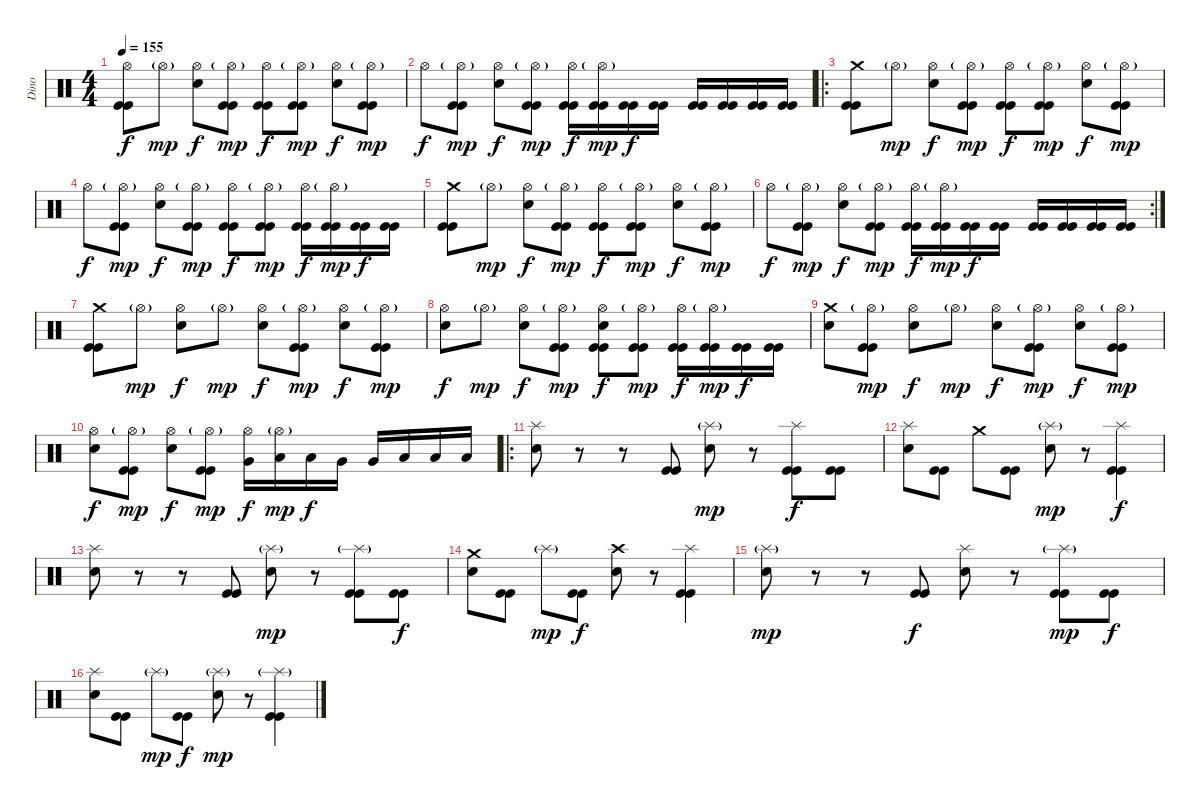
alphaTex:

\track ("Dino" "Dino") {instrument percussion}
\staff {score}
\articulation defaults
\ts (4 4)
\tempo 155
\clef neutral
\ks c
("Hi-Hat (open)" "Kick (hit)" "Kick (hit)").8{dy f} "Hi-Hat (open)"{g}.8{dy mp} ("Hi-Hat (open)" "Electric Snare (hit)").8{dy f} ("Hi-Hat (open)"{g} "Kick (hit)" "Kick (hit)").8{dy mp} ("Hi-Hat (open)" "Kick (hit)" "Kick (hit)").8{dy f} ("Hi-Hat (open)"{g} "Kick (hit)" "Kick (hit)").8{dy mp} ("Hi-Hat (open)" "Electric Snare (hit)").8{dy f} ("Hi-Hat (open)"{g} "Kick (hit)" "Kick (hit)").8{dy mp} |
"Hi-Hat (open)".8{dy f} ("Hi-Hat (open)"{g} "Kick (hit)" "Kick (hit)").8{dy mp} ("Hi-Hat (open)" "Electric Snare (hit)").8{dy f} ("Hi-Hat (open)"{g} "Kick (hit)" "Kick (hit)").8{dy mp} ("Hi-Hat (open)" "Kick (hit)" "Kick (hit)").16{dy f} ("Hi-Hat (open)"{g} "Kick (hit)" "Kick (hit)").16{dy mp} ("Kick (hit)" "Kick (hit)").16{dy f} ("Kick (hit)" "Kick (hit)").16 ("Kick (hit)" "Kick (hit)").16 ("Kick (hit)" "Kick (hit)").16 ("Kick (hit)" "Kick (hit)").16 ("Kick (hit)" "Kick (hit)").16 |
\ro
("Crash medium (hit)" "Kick (hit)" "Kick (hit)").8 "Hi-Hat (open)"{g}.8{dy mp} ("Hi-Hat (open)" "Electric Snare (hit)").8{dy f} ("Hi-Hat (open)"{g} "Kick (hit)" "Kick (hit)").8{dy mp} ("Hi-Hat (open)" "Kick (hit)" "Kick (hit)").8{dy f} ("Hi-Hat (open)"{g} "Kick (hit)" "Kick (hit)").8{dy mp} ("Hi-Hat (open)" "Electric Snare (hit)").8{dy f} ("Hi-Hat (open)"{g} "Kick (hit)" "Kick (hit)").8{dy mp} |
"Hi-Hat (open)".8{dy f} ("Hi-Hat (open)"{g} "Kick (hit)" "Kick (hit)").8{dy mp} ("Hi-Hat (open)" "Electric Snare (hit)").8{dy f} ("Hi-Hat (open)"{g} "Kick (hit)" "Kick (hit)").8{dy mp} ("Hi-Hat (open)" "Kick (hit)" "Kick (hit)").8{dy f} ("Hi-Hat (open)"{g} "Kick (hit)" "Kick (hit)").8{dy mp} ("Hi-Hat (open)" "Kick (hit)" "Kick (hit)").16{dy f} ("Hi-Hat (open)"{g} "Kick (hit)" "Kick (hit)").16{dy mp} ("Kick (hit)" "Kick (hit)").16{dy f} ("Kick (hit)" "Kick (hit)").16 |
("Crash medium (hit)" "Kick (hit)" "Kick (hit)").8 "Hi-Hat (open)"{g}.8{dy mp} ("Hi-Hat (open)" "Electric Snare (hit)").8{dy f} ("Hi-Hat (open)"{g} "Kick (hit)" "Kick (hit)").8{dy mp} ("Hi-Hat (open)" "Kick (hit)" "Kick (hit)").8{dy f} ("Hi-Hat (open)"{g} "Kick (hit)" "Kick (hit)").8{dy mp} ("Hi-Hat (open)" "Electric Snare (hit)").8{dy f} ("Hi-Hat (open)"{g} "Kick (hit)" "Kick (hit)").8{dy mp} |
\rc 2 "Hi-Hat (open)".8{dy f}
("Hi-Hat (open)"{g} "Kick (hit)" "Kick (hit)").8{dy mp} ("Hi-Hat (open)" "Electric Snare (hit)").8{dy f} ("Hi-Hat (open)"{g} "Kick (hit)" "Kick (hit)").8{dy mp} ("Hi-Hat (open)" "Kick (hit)" "Kick (hit)").16{dy f} ("Hi-Hat (open)"{g} "Kick (hit)" "Kick (hit)").16{dy mp} ("Kick (hit)" "Kick (hit)").16{dy f} ("Kick (hit)" "Kick (hit)").16 ("Kick (hit)" "Kick (hit)").16 ("Kick (hit)" "Kick (hit)").16 ("Kick (hit)" "Kick (hit)").16 ("Kick (hit)" "Kick (hit)").16 |
("Crash medium (hit)" "Kick (hit)" "Kick (hit)").8 "Hi-Hat (open)"{g}.8{dy mp} ("Hi-Hat (open)" "Electric Snare (hit)").8{dy f} "Hi-Hat (open)"{g}.8{dy mp} ("Hi-Hat (open)" "Electric Snare (hit)").8{dy f} ("Hi-Hat (open)"{g} "Kick (hit)" "Kick (hit)").8{dy mp} ("Hi-Hat (open)" "Electric Snare (hit)").8{dy f} ("Hi-Hat (open)"{g} "Kick (hit)" "Kick (hit)").8{dy mp} |
("Hi-Hat (open)" "Electric Snare (hit)").8{dy f} "Hi-Hat (open)"{g}.8{dy mp} ("Hi-Hat (open)" "Electric Snare (hit)").8{dy f} ("Hi-Hat (open)"{g} "Kick (hit)" "Kick (hit)").8{dy mp} ("Hi-Hat (open)" "Electric Snare (hit)" "Kick (hit)" "Kick (hit)").8{dy f} ("Hi-Hat (open)"{g} "Kick (hit)" "Kick (hit)").8{dy mp} ("Hi-Hat (open)" "Kick (hit)" "Kick (hit)").16{dy f} ("Hi-Hat (open)"{g} "Kick (hit)" "Kick (hit)").16{dy mp} ("Kick (hit)" "Kick (hit)").16{dy f} ("Kick (hit)" "Kick (hit)").16 |
("Crash medium (hit)" "Electric Snare (hit)").8 ("Hi-Hat (open)"{g} "Kick (hit)" "Kick (hit)").8{dy mp} ("Hi-Hat (open)" "Electric Snare (hit)").8{dy f} "Hi-Hat (open)"{g}.8{dy mp} ("Hi-Hat (open)" "Electric Snare (hit)").8{dy f} ("Hi-Hat (open)"{g} "Kick (hit)" "Kick (hit)").8{dy mp} ("Hi-Hat (open)" "Electric Snare (hit)").8{dy f} ("Hi-Hat (open)"{g} "Kick (hit)" "Kick (hit)").8{dy mp} |
("Hi-Hat (open)" "Electric Snare (hit)").8{dy f} ("Hi-Hat (open)"{g} "Kick (hit)" "Kick (hit)").8{dy mp} ("Hi-Hat (open)" "Electric Snare (hit)").8{dy f} ("Hi-Hat (open)"{g} "Kick (hit)" "Kick (hit)").8{dy mp} ("Hi-Hat (open)" "Very Low Tom (hit)").16{dy f} ("Hi-Hat (open)"{g} "Low Tom (hit)").16{dy mp} "Low Tom (hit)".16{dy f} "Very Low Tom (hit)".16 "Very Low Tom (hit)".16 "Low Tom (hit)".16 "Low Tom (hit)".16 "Low Tom (hit)".16 |
\ro
("Splash (hit)" "Electric Snare (hit)").8 r.8 r.8 ("Kick (hit)" "Kick (hit)").8 ("Splash (hit)"{g} "Electric Snare (hit)").8{dy mp} r.8 ("Splash (hit)" "Kick (hit)" "Kick (hit)").8{dy f} ("Kick (hit)" "Kick (hit)").8 |
("Splash (hit)" "Electric Snare (hit)").8 ("Kick (hit)" "Kick (hit)").8 "Crash medium (hit)".8 ("Kick (hit)" "Kick (hit)").8 ("Splash (hit)"{g} "Electric Snare (hit)").8{dy mp} r.8 ("Splash (hit)" "Kick (hit)" "Kick (hit)").4{dy f} |
("Splash (hit)" "Electric Snare (hit)").8 r.8 r.8 ("Kick (hit)" "Kick (hit)").8 ("Splash (hit)"{g} "Electric Snare (hit)").8{dy mp} r.8 ("Splash (hit)"{g} "Kick (hit)" "Kick (hit)").8 ("Kick (hit)" "Kick (hit)").8{dy f} |
("Crash medium (hit)" "Electric Snare (hit)").8 ("Kick (hit)" "Kick (hit)").8 "Splash (hit)"{g}.8{dy mp} ("Kick (hit)" "Kick (hit)").8{dy f} ("Crash high (hit)" "Electric Snare (hit)").8 r.8 ("Splash (hit)" "Kick (hit)" "Kick (hit)").4 |
("Splash (hit)"{g} "Electric Snare (hit)").8{dy mp} r.8 r.8 ("Kick (hit)" "Kick (hit)").8{dy f} ("Splash (hit)" "Electric Snare (hit)").8 r.8 ("Splash (hit)"{g} "Kick (hit)" "Kick (hit)").8{dy mp} ("Kick (hit)" "Kick (hit)").8{dy f} |
("Splash (hit)" "Electric Snare (hit)").8 ("Kick (hit)" "Kick (hit)").8 "Splash (hit)"{g}.8{dy mp} ("Kick (hit)" "Kick (hit)").8{dy f} ("Splash (hit)"{g} "Electric Snare (hit)").8{dy mp} r.8 ("Splash (hit)"{g} "Kick (hit)" "Kick (hit)").4
